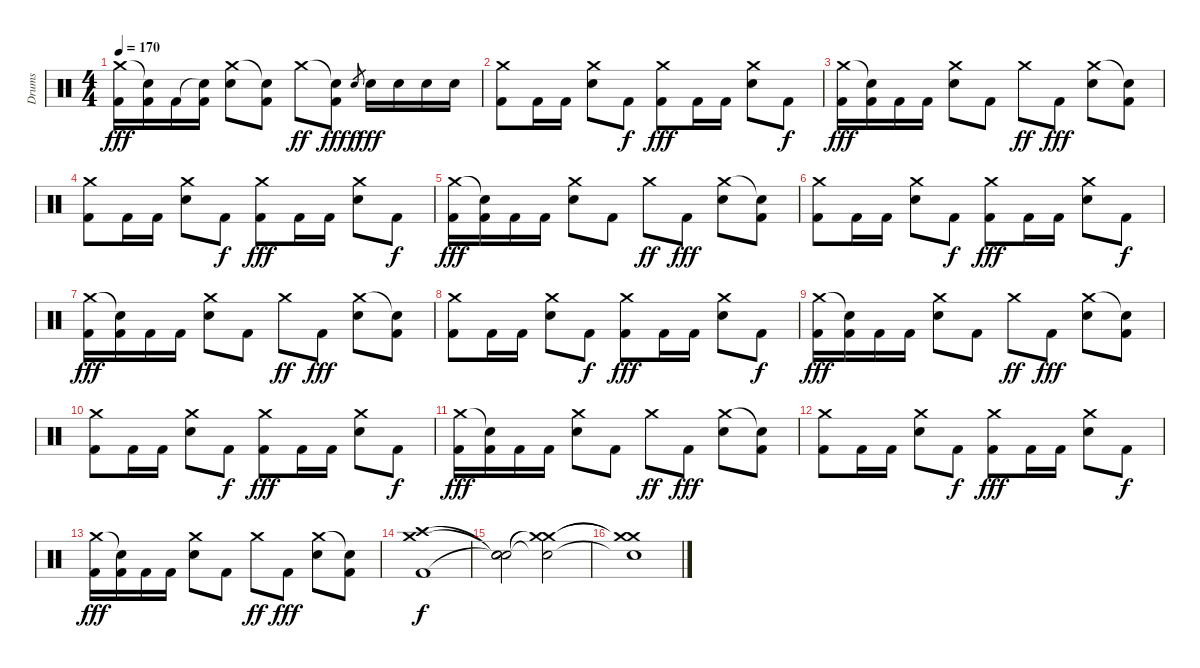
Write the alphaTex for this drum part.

\track ("Drums" "Drums") {instrument percussion}
\staff {score}
\articulation defaults
\ts (4 4)
\tempo 170
\clef neutral
\ks c
("Crash medium (hit)" "Kick (hit) 2").16{dy fff} ("Snare (hit)"{t} "Kick (hit) 2").16 "Kick (hit) 2".16 ("Snare (hit)"{t} "Kick (hit) 2").16 ("Crash medium (hit)" "Snare (hit) 2").8 ("Snare (hit)"{t} "Kick (hit) 2").8 "Crash medium (hit)".8{dy ff} ("Snare (hit)"{t} "Kick (hit) 2").8{dy fff} "Snare (hit) 2".8{gr dy f} "Snare (hit) 2".16{dy fff} "Snare (hit) 2".16 "Snare (hit) 2".16 "Snare (hit) 2".16 |
("Crash medium (hit)" "Kick (hit) 2").8 "Kick (hit) 2".16 "Kick (hit) 2".16 ("Crash medium (hit)" "Snare (hit) 2").8 "Kick (hit) 2".8{dy f} ("Crash medium (hit)" "Kick (hit) 2").8{dy fff} "Kick (hit) 2".16 "Kick (hit) 2".16 ("Crash medium (hit)" "Snare (hit) 2").8 "Kick (hit) 2".8{dy f} |
("Crash medium (hit)" "Kick (hit) 2").16{dy fff} ("Snare (hit)"{t} "Kick (hit) 2").16 "Kick (hit) 2".16 "Kick (hit) 2".16 ("Crash medium (hit)" "Snare (hit) 2").8 "Kick (hit) 2".8 "Crash medium (hit)".8{dy ff} "Kick (hit) 2".8{dy fff} ("Crash medium (hit)" "Snare (hit) 2").8 ("Snare (hit)"{t} "Kick (hit) 2").8 |
("Crash medium (hit)" "Kick (hit) 2").8 "Kick (hit) 2".16 "Kick (hit) 2".16 ("Crash medium (hit)" "Snare (hit) 2").8 "Kick (hit) 2".8{dy f} ("Crash medium (hit)" "Kick (hit) 2").8{dy fff} "Kick (hit) 2".16 "Kick (hit) 2".16 ("Crash medium (hit)" "Snare (hit) 2").8 "Kick (hit) 2".8{dy f} |
("Crash medium (hit)" "Kick (hit) 2").16{dy fff} ("Snare (hit)"{t} "Kick (hit) 2").16 "Kick (hit) 2".16 "Kick (hit) 2".16 ("Crash medium (hit)" "Snare (hit) 2").8 "Kick (hit) 2".8 "Crash medium (hit)".8{dy ff} "Kick (hit) 2".8{dy fff} ("Crash medium (hit)" "Snare (hit) 2").8 ("Snare (hit)"{t} "Kick (hit) 2").8 |
("Crash medium (hit)" "Kick (hit) 2").8 "Kick (hit) 2".16 "Kick (hit) 2".16 ("Crash medium (hit)" "Snare (hit) 2").8 "Kick (hit) 2".8{dy f} ("Crash medium (hit)" "Kick (hit) 2").8{dy fff} "Kick (hit) 2".16 "Kick (hit) 2".16 ("Crash medium (hit)" "Snare (hit) 2").8 "Kick (hit) 2".8{dy f} |
("Crash medium (hit)" "Kick (hit) 2").16{dy fff} ("Snare (hit)"{t} "Kick (hit) 2").16 "Kick (hit) 2".16 "Kick (hit) 2".16 ("Crash medium (hit)" "Snare (hit) 2").8 "Kick (hit) 2".8 "Crash medium (hit)".8{dy ff} "Kick (hit) 2".8{dy fff} ("Crash medium (hit)" "Snare (hit) 2").8 ("Snare (hit)"{t} "Kick (hit) 2").8 |
("Crash medium (hit)" "Kick (hit) 2").8 "Kick (hit) 2".16 "Kick (hit) 2".16 ("Crash medium (hit)" "Snare (hit) 2").8 "Kick (hit) 2".8{dy f} ("Crash medium (hit)" "Kick (hit) 2").8{dy fff} "Kick (hit) 2".16 "Kick (hit) 2".16 ("Crash medium (hit)" "Snare (hit) 2").8 "Kick (hit) 2".8{dy f} |
("Crash medium (hit)" "Kick (hit) 2").16{dy fff} ("Snare (hit)"{t} "Kick (hit) 2").16 "Kick (hit) 2".16 "Kick (hit) 2".16 ("Crash medium (hit)" "Snare (hit) 2").8 "Kick (hit) 2".8 "Crash medium (hit)".8{dy ff} "Kick (hit) 2".8{dy fff} ("Crash medium (hit)" "Snare (hit) 2").8 ("Snare (hit)"{t} "Kick (hit) 2").8 |
("Crash medium (hit)" "Kick (hit) 2").8 "Kick (hit) 2".16 "Kick (hit) 2".16 ("Crash medium (hit)" "Snare (hit) 2").8 "Kick (hit) 2".8{dy f} ("Crash medium (hit)" "Kick (hit) 2").8{dy fff} "Kick (hit) 2".16 "Kick (hit) 2".16 ("Crash medium (hit)" "Snare (hit) 2").8 "Kick (hit) 2".8{dy f} |
("Crash medium (hit)" "Kick (hit) 2").16{dy fff} ("Snare (hit)"{t} "Kick (hit) 2").16 "Kick (hit) 2".16 "Kick (hit) 2".16 ("Crash medium (hit)" "Snare (hit) 2").8 "Kick (hit) 2".8 "Crash medium (hit)".8{dy ff} "Kick (hit) 2".8{dy fff} ("Crash medium (hit)" "Snare (hit) 2").8 ("Snare (hit)"{t} "Kick (hit) 2").8 |
("Crash medium (hit)" "Kick (hit) 2").8 "Kick (hit) 2".16 "Kick (hit) 2".16 ("Crash medium (hit)" "Snare (hit) 2").8 "Kick (hit) 2".8{dy f} ("Crash medium (hit)" "Kick (hit) 2").8{dy fff} "Kick (hit) 2".16 "Kick (hit) 2".16 ("Crash medium (hit)" "Snare (hit) 2").8 "Kick (hit) 2".8{dy f} |
("Crash medium (hit)" "Kick (hit) 2").16{dy fff} ("Snare (hit)"{t} "Kick (hit) 2").16 "Kick (hit) 2".16 "Kick (hit) 2".16 ("Crash medium (hit)" "Snare (hit) 2").8 "Kick (hit) 2".8 "Crash medium (hit)".8{dy ff} "Kick (hit) 2".8{dy fff} ("Crash medium (hit)" "Snare (hit) 2").8 ("Snare (hit)"{t} "Kick (hit) 2").8 |
("Crash medium (hit)" "Crash high (hit)" "Kick (hit) 2").1{dy f} |
("Snare (hit)"{t} "Snare (hit)"{t} "Snare (hit)"{t}).2 ("Crash medium (hit)"{t} "Crash medium (hit)"{t} "Snare (hit)"{t}).2{volume 0} |
("Crash medium (hit)"{t} "Crash medium (hit)"{t} "Snare (hit)"{t}).1
